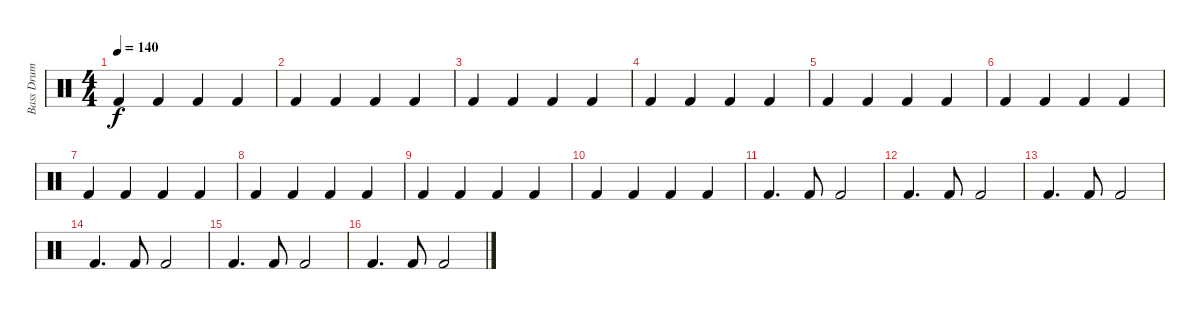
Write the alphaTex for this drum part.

\track ("Bass Drum" "Bass Drum") {instrument percussion}
\staff {score}
\articulation defaults
\ts (4 4)
\tempo 140
\clef neutral
\ks c "Kick (hit) 2".4{dy f} "Kick (hit) 2".4 "Kick (hit) 2".4 "Kick (hit) 2".4
|
"Kick (hit) 2".4 "Kick (hit) 2".4 "Kick (hit) 2".4 "Kick (hit) 2".4 |
"Kick (hit) 2".4 "Kick (hit) 2".4 "Kick (hit) 2".4 "Kick (hit) 2".4 |
"Kick (hit) 2".4 "Kick (hit) 2".4 "Kick (hit) 2".4 "Kick (hit) 2".4 |
"Kick (hit) 2".4 "Kick (hit) 2".4 "Kick (hit) 2".4 "Kick (hit) 2".4 |
"Kick (hit) 2".4 "Kick (hit) 2".4 "Kick (hit) 2".4 "Kick (hit) 2".4 |
"Kick (hit) 2".4 "Kick (hit) 2".4 "Kick (hit) 2".4 "Kick (hit) 2".4 |
"Kick (hit) 2".4 "Kick (hit) 2".4 "Kick (hit) 2".4 "Kick (hit) 2".4 |
"Kick (hit) 2".4 "Kick (hit) 2".4 "Kick (hit) 2".4 "Kick (hit) 2".4 |
"Kick (hit) 2".4 "Kick (hit) 2".4 "Kick (hit) 2".4 "Kick (hit) 2".4 |
"Kick (hit) 2".4{d} "Kick (hit) 2".8 "Kick (hit) 2".2 |
"Kick (hit) 2".4{d} "Kick (hit) 2".8 "Kick (hit) 2".2 |
"Kick (hit) 2".4{d} "Kick (hit) 2".8 "Kick (hit) 2".2 |
"Kick (hit) 2".4{d} "Kick (hit) 2".8 "Kick (hit) 2".2 |
"Kick (hit) 2".4{d} "Kick (hit) 2".8 "Kick (hit) 2".2 |
"Kick (hit) 2".4{d} "Kick (hit) 2".8 "Kick (hit) 2".2
